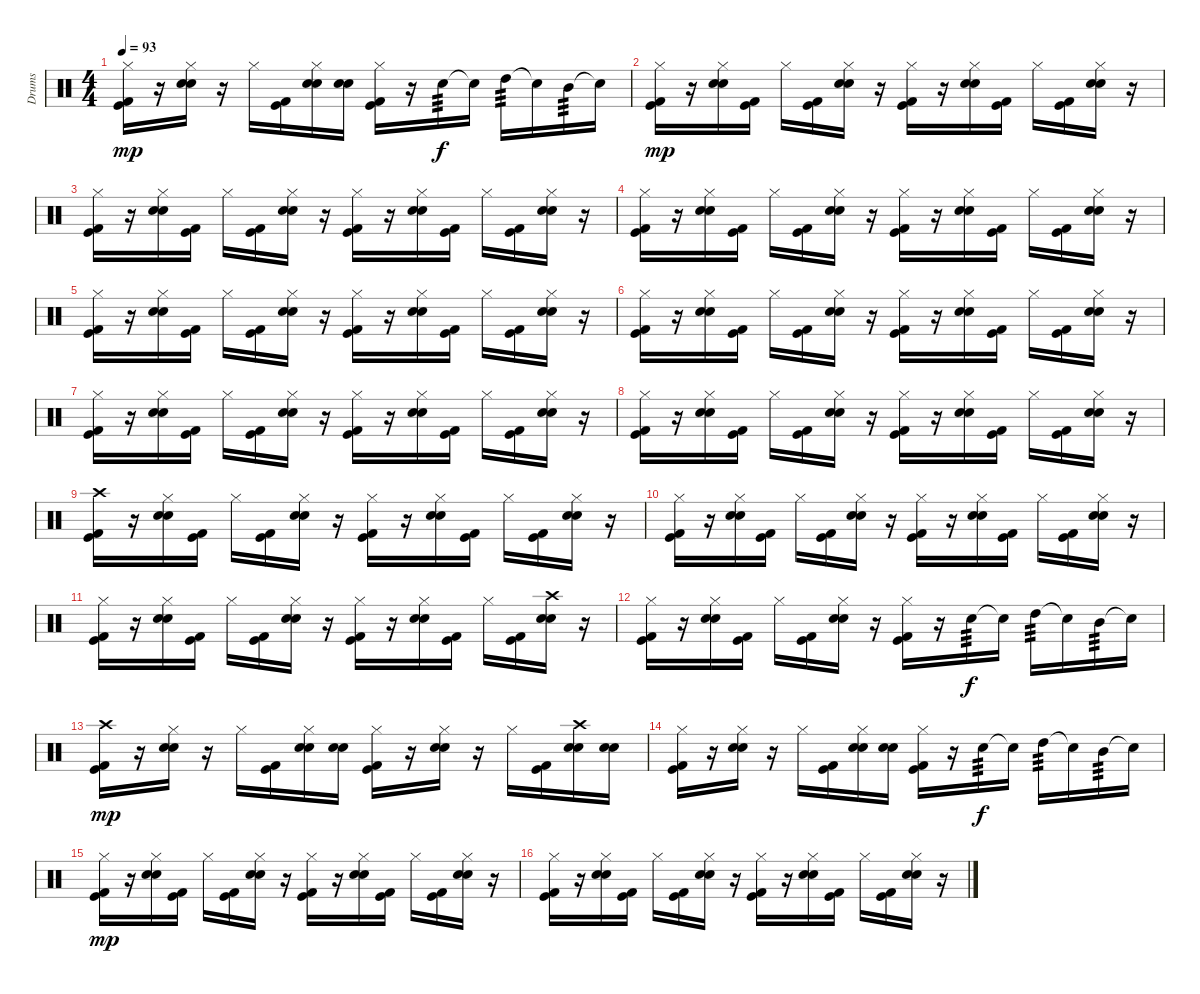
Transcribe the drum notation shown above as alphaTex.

\track ("Drums" "Drums") {instrument percussion}
\staff {score}
\articulation defaults
\ts (4 4)
\tempo 93
\clef neutral
\ks c
("Hi-Hat (closed)" "Kick (hit)" "Kick (hit) 2").16{dy mp} r.16 ("Hi-Hat (closed)" "Electric Snare (hit)" "Snare (hit) 2").16 r.16 "Hi-Hat (closed)".16 ("Kick (hit)" "Kick (hit) 2").16 ("Hi-Hat (closed)" "Electric Snare (hit)" "Snare (hit) 2").16 ("Electric Snare (hit)" "Snare (hit) 2").16 ("Hi-Hat (closed)" "Kick (hit)" "Kick (hit) 2").16 r.16 "Electric Snare (hit)".16{tp 3 dy f} "Snare (hit)"{t}.16 "High Tom (hit)".16{tp 3} "Snare (hit)"{t}.16 "Mid Tom (hit)".16{tp 3} "Snare (hit)"{t}.16 |
("Hi-Hat (closed)" "Kick (hit)" "Kick (hit) 2").16{dy mp} r.16 ("Hi-Hat (closed)" "Electric Snare (hit)" "Snare (hit) 2").16 ("Kick (hit)" "Kick (hit) 2").16 "Hi-Hat (closed)".16 ("Kick (hit)" "Kick (hit) 2").16 ("Hi-Hat (closed)" "Electric Snare (hit)" "Snare (hit) 2").16 r.16 ("Hi-Hat (closed)" "Kick (hit)" "Kick (hit) 2").16 r.16 ("Hi-Hat (closed)" "Electric Snare (hit)" "Snare (hit) 2").16 ("Kick (hit)" "Kick (hit) 2").16 "Hi-Hat (closed)".16 ("Kick (hit)" "Kick (hit) 2").16 ("Hi-Hat (closed)" "Electric Snare (hit)" "Snare (hit) 2").16 r.16 |
("Hi-Hat (closed)" "Kick (hit)" "Kick (hit) 2").16 r.16 ("Hi-Hat (closed)" "Electric Snare (hit)" "Snare (hit) 2").16 ("Kick (hit)" "Kick (hit) 2").16 "Hi-Hat (closed)".16 ("Kick (hit)" "Kick (hit) 2").16 ("Hi-Hat (closed)" "Electric Snare (hit)" "Snare (hit) 2").16 r.16 ("Hi-Hat (closed)" "Kick (hit)" "Kick (hit) 2").16 r.16 ("Hi-Hat (closed)" "Electric Snare (hit)" "Snare (hit) 2").16 ("Kick (hit)" "Kick (hit) 2").16 "Hi-Hat (closed)".16 ("Kick (hit)" "Kick (hit) 2").16 ("Hi-Hat (closed)" "Electric Snare (hit)" "Snare (hit) 2").16 r.16 |
("Hi-Hat (closed)" "Kick (hit)" "Kick (hit) 2").16 r.16 ("Hi-Hat (closed)" "Electric Snare (hit)" "Snare (hit) 2").16 ("Kick (hit)" "Kick (hit) 2").16 "Hi-Hat (closed)".16 ("Kick (hit)" "Kick (hit) 2").16 ("Hi-Hat (closed)" "Electric Snare (hit)" "Snare (hit) 2").16 r.16 ("Hi-Hat (closed)" "Kick (hit)" "Kick (hit) 2").16 r.16 ("Hi-Hat (closed)" "Electric Snare (hit)" "Snare (hit) 2").16 ("Kick (hit)" "Kick (hit) 2").16 "Hi-Hat (closed)".16 ("Kick (hit)" "Kick (hit) 2").16 ("Hi-Hat (closed)" "Electric Snare (hit)" "Snare (hit) 2").16 r.16 |
("Hi-Hat (closed)" "Kick (hit)" "Kick (hit) 2").16 r.16 ("Hi-Hat (closed)" "Electric Snare (hit)" "Snare (hit) 2").16 ("Kick (hit)" "Kick (hit) 2").16 "Hi-Hat (closed)".16 ("Kick (hit)" "Kick (hit) 2").16 ("Hi-Hat (closed)" "Electric Snare (hit)" "Snare (hit) 2").16 r.16 ("Hi-Hat (closed)" "Kick (hit)" "Kick (hit) 2").16 r.16 ("Hi-Hat (closed)" "Electric Snare (hit)" "Snare (hit) 2").16 ("Kick (hit)" "Kick (hit) 2").16 "Hi-Hat (closed)".16 ("Kick (hit)" "Kick (hit) 2").16 ("Hi-Hat (closed)" "Electric Snare (hit)" "Snare (hit) 2").16 r.16 |
("Hi-Hat (closed)" "Kick (hit)" "Kick (hit) 2").16 r.16 ("Hi-Hat (closed)" "Electric Snare (hit)" "Snare (hit) 2").16 ("Kick (hit)" "Kick (hit) 2").16 "Hi-Hat (closed)".16 ("Kick (hit)" "Kick (hit) 2").16 ("Hi-Hat (closed)" "Electric Snare (hit)" "Snare (hit) 2").16 r.16 ("Hi-Hat (closed)" "Kick (hit)" "Kick (hit) 2").16 r.16 ("Hi-Hat (closed)" "Electric Snare (hit)" "Snare (hit) 2").16 ("Kick (hit)" "Kick (hit) 2").16 "Hi-Hat (closed)".16 ("Kick (hit)" "Kick (hit) 2").16 ("Hi-Hat (closed)" "Electric Snare (hit)" "Snare (hit) 2").16 r.16 |
("Hi-Hat (closed)" "Kick (hit)" "Kick (hit) 2").16 r.16 ("Hi-Hat (closed)" "Electric Snare (hit)" "Snare (hit) 2").16 ("Kick (hit)" "Kick (hit) 2").16 "Hi-Hat (closed)".16 ("Kick (hit)" "Kick (hit) 2").16 ("Hi-Hat (closed)" "Electric Snare (hit)" "Snare (hit) 2").16 r.16 ("Hi-Hat (closed)" "Kick (hit)" "Kick (hit) 2").16 r.16 ("Hi-Hat (closed)" "Electric Snare (hit)" "Snare (hit) 2").16 ("Kick (hit)" "Kick (hit) 2").16 "Hi-Hat (closed)".16 ("Kick (hit)" "Kick (hit) 2").16 ("Hi-Hat (closed)" "Electric Snare (hit)" "Snare (hit) 2").16 r.16 |
("Hi-Hat (closed)" "Kick (hit)" "Kick (hit) 2").16 r.16 ("Hi-Hat (closed)" "Electric Snare (hit)" "Snare (hit) 2").16 ("Kick (hit)" "Kick (hit) 2").16 "Hi-Hat (closed)".16 ("Kick (hit)" "Kick (hit) 2").16 ("Hi-Hat (closed)" "Electric Snare (hit)" "Snare (hit) 2").16 r.16 ("Hi-Hat (closed)" "Kick (hit)" "Kick (hit) 2").16 r.16 ("Hi-Hat (closed)" "Electric Snare (hit)" "Snare (hit) 2").16 ("Kick (hit)" "Kick (hit) 2").16 "Hi-Hat (closed)".16 ("Kick (hit)" "Kick (hit) 2").16 ("Hi-Hat (closed)" "Electric Snare (hit)" "Snare (hit) 2").16 r.16 |
("Crash high (hit)" "Kick (hit)" "Kick (hit) 2").16 r.16 ("Hi-Hat (closed)" "Electric Snare (hit)" "Snare (hit) 2").16 ("Kick (hit)" "Kick (hit) 2").16 "Hi-Hat (closed)".16 ("Kick (hit)" "Kick (hit) 2").16 ("Hi-Hat (closed)" "Electric Snare (hit)" "Snare (hit) 2").16 r.16 ("Hi-Hat (closed)" "Kick (hit)" "Kick (hit) 2").16 r.16 ("Hi-Hat (closed)" "Electric Snare (hit)" "Snare (hit) 2").16 ("Kick (hit)" "Kick (hit) 2").16 "Hi-Hat (closed)".16 ("Kick (hit)" "Kick (hit) 2").16 ("Hi-Hat (closed)" "Electric Snare (hit)" "Snare (hit) 2").16 r.16 |
("Hi-Hat (closed)" "Kick (hit)" "Kick (hit) 2").16 r.16 ("Hi-Hat (closed)" "Electric Snare (hit)" "Snare (hit) 2").16 ("Kick (hit)" "Kick (hit) 2").16 "Hi-Hat (closed)".16 ("Kick (hit)" "Kick (hit) 2").16 ("Hi-Hat (closed)" "Electric Snare (hit)" "Snare (hit) 2").16 r.16 ("Hi-Hat (closed)" "Kick (hit)" "Kick (hit) 2").16 r.16 ("Hi-Hat (closed)" "Electric Snare (hit)" "Snare (hit) 2").16 ("Kick (hit)" "Kick (hit) 2").16 "Hi-Hat (closed)".16 ("Kick (hit)" "Kick (hit) 2").16 ("Hi-Hat (closed)" "Electric Snare (hit)" "Snare (hit) 2").16 r.16 |
("Hi-Hat (closed)" "Kick (hit)" "Kick (hit) 2").16 r.16 ("Hi-Hat (closed)" "Electric Snare (hit)" "Snare (hit) 2").16 ("Kick (hit)" "Kick (hit) 2").16 "Hi-Hat (closed)".16 ("Kick (hit)" "Kick (hit) 2").16 ("Hi-Hat (closed)" "Electric Snare (hit)" "Snare (hit) 2").16 r.16 ("Hi-Hat (closed)" "Kick (hit)" "Kick (hit) 2").16 r.16 ("Hi-Hat (closed)" "Electric Snare (hit)" "Snare (hit) 2").16 ("Kick (hit)" "Kick (hit) 2").16 "Hi-Hat (closed)".16 ("Kick (hit)" "Kick (hit) 2").16 ("Crash high (hit)" "Electric Snare (hit)" "Snare (hit) 2").16 r.16 |
("Hi-Hat (closed)" "Kick (hit)" "Kick (hit) 2").16 r.16 ("Hi-Hat (closed)" "Electric Snare (hit)" "Snare (hit) 2").16 ("Kick (hit)" "Kick (hit) 2").16 "Hi-Hat (closed)".16 ("Kick (hit)" "Kick (hit) 2").16 ("Hi-Hat (closed)" "Electric Snare (hit)" "Snare (hit) 2").16 r.16 ("Hi-Hat (closed)" "Kick (hit)" "Kick (hit) 2").16 r.16 "Electric Snare (hit)".16{tp 3 dy f} "Snare (hit)"{t}.16 "High Tom (hit)".16{tp 3} "Snare (hit)"{t}.16 "Mid Tom (hit)".16{tp 3} "Snare (hit)"{t}.16 |
("Crash high (hit)" "Kick (hit)" "Kick (hit) 2").16{dy mp} r.16 ("Hi-Hat (closed)" "Electric Snare (hit)" "Snare (hit) 2").16 r.16 "Hi-Hat (closed)".16 ("Kick (hit)" "Kick (hit) 2").16 ("Hi-Hat (closed)" "Electric Snare (hit)" "Snare (hit) 2").16 ("Electric Snare (hit)" "Snare (hit) 2").16 ("Hi-Hat (closed)" "Kick (hit)" "Kick (hit) 2").16 r.16 ("Hi-Hat (closed)" "Electric Snare (hit)" "Snare (hit) 2").16 r.16 "Hi-Hat (closed)".16 ("Kick (hit)" "Kick (hit) 2").16 ("Crash high (hit)" "Electric Snare (hit)" "Snare (hit) 2").16 ("Electric Snare (hit)" "Snare (hit) 2").16 |
("Hi-Hat (closed)" "Kick (hit)" "Kick (hit) 2").16 r.16 ("Hi-Hat (closed)" "Electric Snare (hit)" "Snare (hit) 2").16 r.16 "Hi-Hat (closed)".16 ("Kick (hit)" "Kick (hit) 2").16 ("Hi-Hat (closed)" "Electric Snare (hit)" "Snare (hit) 2").16 ("Electric Snare (hit)" "Snare (hit) 2").16 ("Hi-Hat (closed)" "Kick (hit)" "Kick (hit) 2").16 r.16 "Electric Snare (hit)".16{tp 3 dy f} "Snare (hit)"{t}.16 "High Tom (hit)".16{tp 3} "Snare (hit)"{t}.16 "Mid Tom (hit)".16{tp 3} "Snare (hit)"{t}.16 |
("Hi-Hat (closed)" "Kick (hit)" "Kick (hit) 2").16{dy mp} r.16 ("Hi-Hat (closed)" "Electric Snare (hit)" "Snare (hit) 2").16 ("Kick (hit)" "Kick (hit) 2").16 "Hi-Hat (closed)".16 ("Kick (hit)" "Kick (hit) 2").16 ("Hi-Hat (closed)" "Electric Snare (hit)" "Snare (hit) 2").16 r.16 ("Hi-Hat (closed)" "Kick (hit)" "Kick (hit) 2").16 r.16 ("Hi-Hat (closed)" "Electric Snare (hit)" "Snare (hit) 2").16 ("Kick (hit)" "Kick (hit) 2").16 "Hi-Hat (closed)".16 ("Kick (hit)" "Kick (hit) 2").16 ("Hi-Hat (closed)" "Electric Snare (hit)" "Snare (hit) 2").16 r.16 |
("Hi-Hat (closed)" "Kick (hit)" "Kick (hit) 2").16 r.16 ("Hi-Hat (closed)" "Electric Snare (hit)" "Snare (hit) 2").16 ("Kick (hit)" "Kick (hit) 2").16 "Hi-Hat (closed)".16 ("Kick (hit)" "Kick (hit) 2").16 ("Hi-Hat (closed)" "Electric Snare (hit)" "Snare (hit) 2").16 r.16 ("Hi-Hat (closed)" "Kick (hit)" "Kick (hit) 2").16 r.16 ("Hi-Hat (closed)" "Electric Snare (hit)" "Snare (hit) 2").16 ("Kick (hit)" "Kick (hit) 2").16 "Hi-Hat (closed)".16 ("Kick (hit)" "Kick (hit) 2").16 ("Hi-Hat (closed)" "Electric Snare (hit)" "Snare (hit) 2").16 r.16
